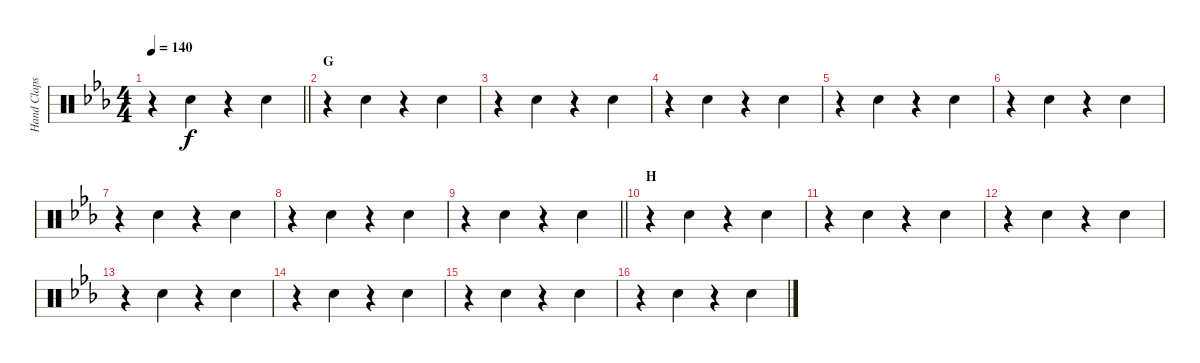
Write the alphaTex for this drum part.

\track ("Hand Claps" "Hand Claps") {instrument percussion}
\staff {score}
\articulation defaults
\ts (4 4)
\tempo 140
\clef neutral
\barLineRight lightlight
\ks eb
r.4{dy f} "Hand Clap (hit)".4 r.4 "Hand Clap (hit)".4 |
\section ("" "G")
r.4 "Hand Clap (hit)".4 r.4 "Hand Clap (hit)".4 |
r.4 "Hand Clap (hit)".4 r.4 "Hand Clap (hit)".4 |
r.4 "Hand Clap (hit)".4 r.4 "Hand Clap (hit)".4 |
r.4 "Hand Clap (hit)".4 r.4 "Hand Clap (hit)".4 |
r.4 "Hand Clap (hit)".4 r.4 "Hand Clap (hit)".4 |
r.4 "Hand Clap (hit)".4 r.4 "Hand Clap (hit)".4 |
r.4 "Hand Clap (hit)".4 r.4 "Hand Clap (hit)".4 |
\barLineRight lightlight
r.4 "Hand Clap (hit)".4 r.4 "Hand Clap (hit)".4 |
\section ("" "H")
r.4 "Hand Clap (hit)".4 r.4 "Hand Clap (hit)".4 |
r.4 "Hand Clap (hit)".4 r.4 "Hand Clap (hit)".4 |
r.4 "Hand Clap (hit)".4 r.4 "Hand Clap (hit)".4 |
r.4 "Hand Clap (hit)".4 r.4 "Hand Clap (hit)".4 |
r.4 "Hand Clap (hit)".4 r.4 "Hand Clap (hit)".4 |
r.4 "Hand Clap (hit)".4 r.4 "Hand Clap (hit)".4 |
r.4 "Hand Clap (hit)".4 r.4 "Hand Clap (hit)".4
